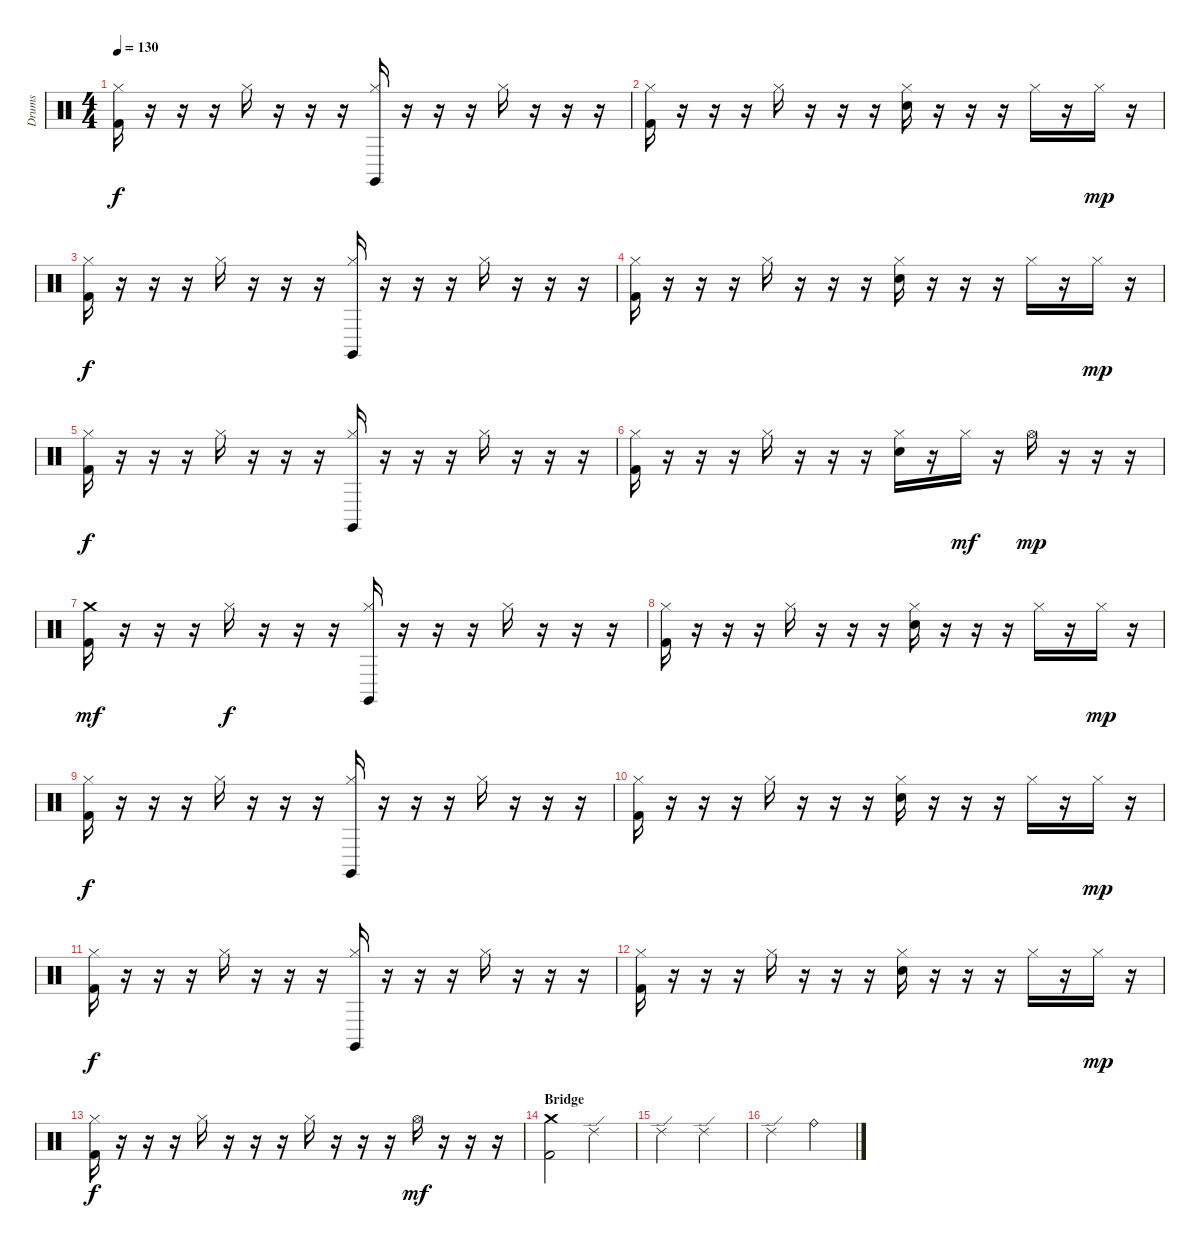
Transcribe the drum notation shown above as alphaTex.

\track ("Drums" "Drums") {instrument percussion}
\staff {score}
\articulation defaults
\ts (4 4)
\tempo 130
\clef neutral
\ks c
("Hi-Hat (closed)" "Kick (hit) 2").16{dy f} r.16 r.16 r.16 "Hi-Hat (closed)".16 r.16 r.16 r.16 ("Hi-Hat (closed)" "Claves (hit)").16 r.16 r.16 r.16 "Hi-Hat (closed)".16 r.16 r.16 r.16 |
("Hi-Hat (closed)" "Kick (hit) 2").16 r.16 r.16 r.16 "Hi-Hat (closed)".16 r.16 r.16 r.16 ("Hi-Hat (closed)" "Snare (hit) 2").16 r.16 r.16 r.16 "Hi-Hat (closed)".16 r.16 "Hi-Hat (closed)".16{dy mp} r.16 |
("Hi-Hat (closed)" "Kick (hit) 2").16{dy f} r.16 r.16 r.16 "Hi-Hat (closed)".16 r.16 r.16 r.16 ("Hi-Hat (closed)" "Claves (hit)").16 r.16 r.16 r.16 "Hi-Hat (closed)".16 r.16 r.16 r.16 |
("Hi-Hat (closed)" "Kick (hit) 2").16 r.16 r.16 r.16 "Hi-Hat (closed)".16 r.16 r.16 r.16 ("Hi-Hat (closed)" "Snare (hit) 2").16 r.16 r.16 r.16 "Hi-Hat (closed)".16 r.16 "Hi-Hat (closed)".16{dy mp} r.16 |
("Hi-Hat (closed)" "Kick (hit) 2").16{dy f} r.16 r.16 r.16 "Hi-Hat (closed)".16 r.16 r.16 r.16 ("Hi-Hat (closed)" "Claves (hit)").16 r.16 r.16 r.16 "Hi-Hat (closed)".16 r.16 r.16 r.16 |
("Hi-Hat (closed)" "Kick (hit) 2").16 r.16 r.16 r.16 "Hi-Hat (closed)".16 r.16 r.16 r.16 ("Hi-Hat (closed)" "Snare (hit) 2").16 r.16 "Hi-Hat (closed)".16{dy mf} r.16 "Hi-Hat (open)".16{dy mp} r.16 r.16 r.16 |
("Crash medium (hit)" "Kick (hit) 2").16{dy mf} r.16 r.16 r.16 "Hi-Hat (closed)".16{dy f} r.16 r.16 r.16 ("Hi-Hat (closed)" "Claves (hit)").16 r.16 r.16 r.16 "Hi-Hat (closed)".16 r.16 r.16 r.16 |
("Hi-Hat (closed)" "Kick (hit) 2").16 r.16 r.16 r.16 "Hi-Hat (closed)".16 r.16 r.16 r.16 ("Hi-Hat (closed)" "Snare (hit) 2").16 r.16 r.16 r.16 "Hi-Hat (closed)".16 r.16 "Hi-Hat (closed)".16{dy mp} r.16 |
("Hi-Hat (closed)" "Kick (hit) 2").16{dy f} r.16 r.16 r.16 "Hi-Hat (closed)".16 r.16 r.16 r.16 ("Hi-Hat (closed)" "Claves (hit)").16 r.16 r.16 r.16 "Hi-Hat (closed)".16 r.16 r.16 r.16 |
("Hi-Hat (closed)" "Kick (hit) 2").16 r.16 r.16 r.16 "Hi-Hat (closed)".16 r.16 r.16 r.16 ("Hi-Hat (closed)" "Snare (hit) 2").16 r.16 r.16 r.16 "Hi-Hat (closed)".16 r.16 "Hi-Hat (closed)".16{dy mp} r.16 |
("Hi-Hat (closed)" "Kick (hit) 2").16{dy f} r.16 r.16 r.16 "Hi-Hat (closed)".16 r.16 r.16 r.16 ("Hi-Hat (closed)" "Claves (hit)").16 r.16 r.16 r.16 "Hi-Hat (closed)".16 r.16 r.16 r.16 |
("Hi-Hat (closed)" "Kick (hit) 2").16 r.16 r.16 r.16 "Hi-Hat (closed)".16 r.16 r.16 r.16 ("Hi-Hat (closed)" "Snare (hit) 2").16 r.16 r.16 r.16 "Hi-Hat (closed)".16 r.16 "Hi-Hat (closed)".16{dy mp} r.16 |
("Hi-Hat (closed)" "Kick (hit) 2").16{dy f} r.16 r.16 r.16 "Hi-Hat (closed)".16 r.16 r.16 r.16 "Hi-Hat (closed)".16 r.16 r.16 r.16 "Hi-Hat (open)".16{dy mf} r.16 r.16 r.16 |
\section ("" "Bridge")
("Crash medium (hit)" "Kick (hit) 2").2 "Ride (edge) 2".2 |
"Ride (edge) 2".2 "Ride (edge) 2".2 |
"Ride (edge) 2".2 "Ride (bell)".2
